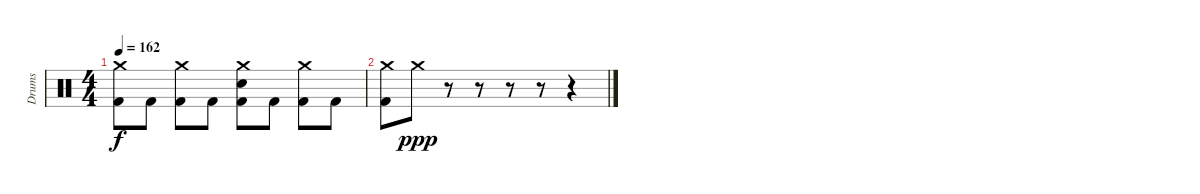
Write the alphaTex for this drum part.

\track ("Drums" "Drums") {instrument percussion}
\staff
\articulation defaults
\ts (4 4)
\tempo 162
\clef neutral
\ks c
("Crash medium (hit)" "Kick (hit) 2").8{dy f} "Kick (hit) 2".8 ("Crash medium (hit)" "Kick (hit) 2").8 "Kick (hit) 2".8 ("Crash medium (hit)" "Electric Snare (hit)" "Kick (hit) 2").8 "Kick (hit) 2".8 ("Crash medium (hit)" "Kick (hit) 2").8 "Kick (hit) 2".8 |
("Crash medium (hit)" "Kick (hit) 2").8 "Crash medium (hit)".8{dy ppp} r.8 r.8 r.8 r.8 r.4
